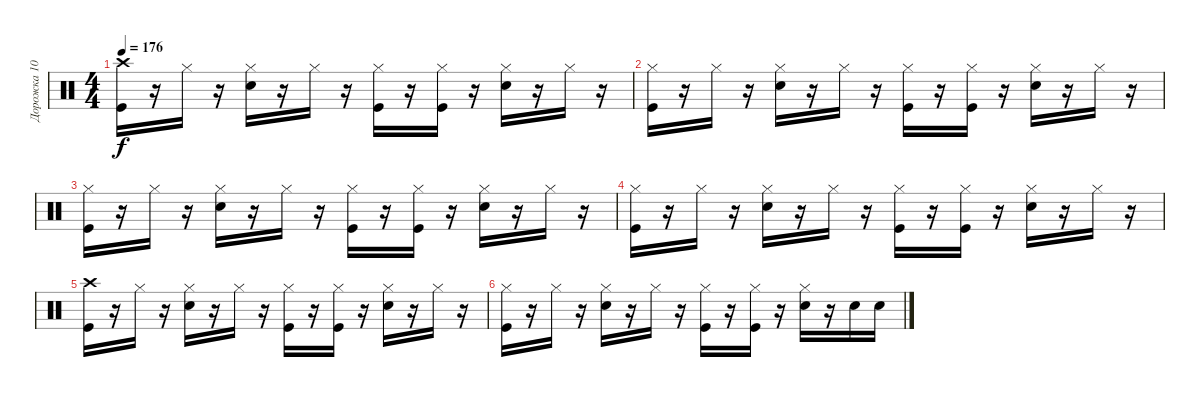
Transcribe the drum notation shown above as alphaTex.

\track ("Дорожка 10" "Дорожка 10") {instrument percussion}
\staff {score}
\articulation defaults
\ts (4 4)
\tempo 176
\clef neutral
\ks c
("Kick (hit)" "Crash high (hit)").16{dy f} r.16 "Hi-Hat (closed)".16 r.16 ("Hi-Hat (closed)" "Electric Snare (hit)").16 r.16 "Hi-Hat (closed)".16 r.16 ("Kick (hit)" "Hi-Hat (closed)").16 r.16 ("Hi-Hat (closed)" "Kick (hit)").16 r.16 ("Electric Snare (hit)" "Hi-Hat (closed)").16 r.16 "Hi-Hat (closed)".16 r.16 |
("Kick (hit)" "Hi-Hat (closed)").16 r.16 "Hi-Hat (closed)".16 r.16 ("Hi-Hat (closed)" "Electric Snare (hit)").16 r.16 "Hi-Hat (closed)".16 r.16 ("Hi-Hat (closed)" "Kick (hit)").16 r.16 ("Kick (hit)" "Hi-Hat (closed)").16 r.16 ("Hi-Hat (closed)" "Electric Snare (hit)").16 r.16 "Hi-Hat (closed)".16 r.16 |
("Kick (hit)" "Hi-Hat (closed)").16 r.16 "Hi-Hat (closed)".16 r.16 ("Hi-Hat (closed)" "Electric Snare (hit)").16 r.16 "Hi-Hat (closed)".16 r.16 ("Hi-Hat (closed)" "Kick (hit)").16 r.16 ("Kick (hit)" "Hi-Hat (closed)").16 r.16 ("Electric Snare (hit)" "Hi-Hat (closed)").16 r.16 "Hi-Hat (closed)".16 r.16 |
("Hi-Hat (closed)" "Kick (hit)").16 r.16 "Hi-Hat (closed)".16 r.16 ("Electric Snare (hit)" "Hi-Hat (closed)").16 r.16 "Hi-Hat (closed)".16 r.16 ("Hi-Hat (closed)" "Kick (hit)").16 r.16 ("Kick (hit)" "Hi-Hat (closed)").16 r.16 ("Hi-Hat (closed)" "Electric Snare (hit)").16 r.16 "Hi-Hat (closed)".16 r.16 |
("Crash high (hit)" "Kick (hit)").16 r.16 "Hi-Hat (closed)".16 r.16 ("Hi-Hat (closed)" "Electric Snare (hit)").16 r.16 "Hi-Hat (closed)".16 r.16 ("Hi-Hat (closed)" "Kick (hit)").16 r.16 ("Kick (hit)" "Hi-Hat (closed)").16 r.16 ("Hi-Hat (closed)" "Electric Snare (hit)").16 r.16 "Hi-Hat (closed)".16 r.16 |
("Hi-Hat (closed)" "Kick (hit)").16 r.16 "Hi-Hat (closed)".16 r.16 ("Hi-Hat (closed)" "Electric Snare (hit)").16 r.16 "Hi-Hat (closed)".16 r.16 ("Kick (hit)" "Hi-Hat (closed)").16 r.16 ("Hi-Hat (closed)" "Kick (hit)").16 r.16 ("Electric Snare (hit)" "Hi-Hat (closed)").16 r.16 "Electric Snare (hit)".16 "Electric Snare (hit)".16
